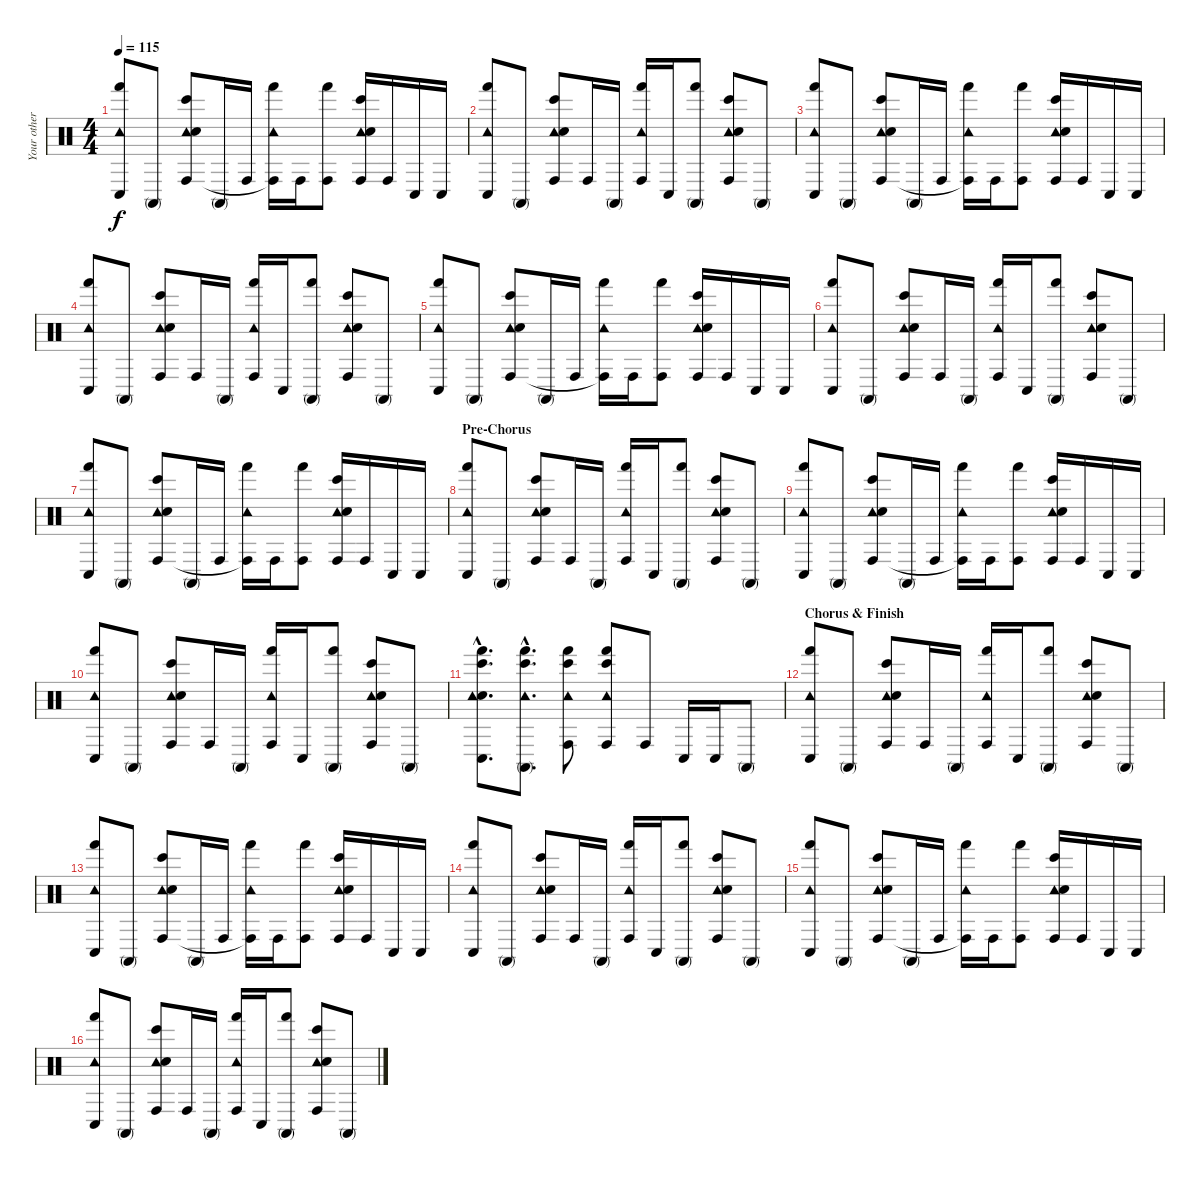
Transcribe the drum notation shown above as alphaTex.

\track ("Your other Friends giving you the Beat" "Your other") {instrument percussion}
\staff {score}
\articulation defaults
\ts (4 4)
\tempo 115
\clef neutral
\ks c
("Tambourine (hit)" "Conga low (hit)" "Hand (hit)").8{dy f} "Conga high (mute)".8 ("Tambourine (hit)" "Conga high (hit)" "Hand Clap (hit)" "Bongo High (hit)").8 "Conga high (mute)".16 "Conga high (hit)".16 ("Tambourine (hit)" "Conga high (hit)"{t} "Hand (hit)").16 "Conga high (hit)".16 ("Conga high (hit)" "Hand (hit)").8 ("Tambourine (hit)" "Conga high (hit)" "Hand Clap (hit)" "Bongo High (hit)").16 "Conga high (hit)".16 "Conga low (hit)".16 "Conga low (hit)".16 |
("Tambourine (hit)" "Conga low (hit)" "Hand (hit)").8 "Conga high (mute)".8 ("Tambourine (hit)" "Conga high (hit)" "Hand Clap (hit)" "Bongo High (hit)").8 "Conga high (hit)".16 "Conga high (mute)".16 ("Tambourine (hit)" "Conga high (hit)" "Hand (hit)").16 "Conga low (hit)".16 ("Conga high (mute)" "Hand (hit)").8 ("Tambourine (hit)" "Conga high (hit)" "Hand Clap (hit)" "Bongo High (hit)").8 "Conga high (mute)".8 |
("Tambourine (hit)" "Conga low (hit)" "Hand (hit)").8 "Conga high (mute)".8 ("Tambourine (hit)" "Conga high (hit)" "Hand Clap (hit)" "Bongo High (hit)").8 "Conga high (mute)".16 "Conga high (hit)".16 ("Tambourine (hit)" "Conga high (hit)"{t} "Hand (hit)").16 "Conga high (hit)".16 ("Conga high (hit)" "Hand (hit)").8 ("Tambourine (hit)" "Conga high (hit)" "Hand Clap (hit)" "Bongo High (hit)").16 "Conga high (hit)".16 "Conga low (hit)".16 "Conga low (hit)".16 |
("Tambourine (hit)" "Conga low (hit)" "Hand (hit)").8 "Conga high (mute)".8 ("Tambourine (hit)" "Conga high (hit)" "Hand Clap (hit)" "Bongo High (hit)").8 "Conga high (hit)".16 "Conga high (mute)".16 ("Tambourine (hit)" "Conga high (hit)" "Hand (hit)").16 "Conga low (hit)".16 ("Conga high (mute)" "Hand (hit)").8 ("Tambourine (hit)" "Conga high (hit)" "Hand Clap (hit)" "Bongo High (hit)").8 "Conga high (mute)".8 |
("Tambourine (hit)" "Conga low (hit)" "Hand (hit)").8 "Conga high (mute)".8 ("Tambourine (hit)" "Conga high (hit)" "Hand Clap (hit)" "Bongo High (hit)").8 "Conga high (mute)".16 "Conga high (hit)".16 ("Tambourine (hit)" "Conga high (hit)"{t} "Hand (hit)").16 "Conga high (hit)".16 ("Conga high (hit)" "Hand (hit)").8 ("Tambourine (hit)" "Conga high (hit)" "Hand Clap (hit)" "Bongo High (hit)").16 "Conga high (hit)".16 "Conga low (hit)".16 "Conga low (hit)".16 |
("Tambourine (hit)" "Conga low (hit)" "Hand (hit)").8 "Conga high (mute)".8 ("Tambourine (hit)" "Conga high (hit)" "Hand Clap (hit)" "Bongo High (hit)").8 "Conga high (hit)".16 "Conga high (mute)".16 ("Tambourine (hit)" "Conga high (hit)" "Hand (hit)").16 "Conga low (hit)".16 ("Conga high (mute)" "Hand (hit)").8 ("Tambourine (hit)" "Conga high (hit)" "Hand Clap (hit)" "Bongo High (hit)").8 "Conga high (mute)".8 |
("Tambourine (hit)" "Conga low (hit)" "Hand (hit)").8 "Conga high (mute)".8 ("Tambourine (hit)" "Conga high (hit)" "Hand Clap (hit)" "Bongo High (hit)").8 "Conga high (mute)".16 "Conga high (hit)".16 ("Tambourine (hit)" "Conga high (hit)"{t} "Hand (hit)").16 "Conga high (hit)".16 ("Conga high (hit)" "Hand (hit)").8 ("Tambourine (hit)" "Conga high (hit)" "Hand Clap (hit)" "Bongo High (hit)").16 "Conga high (hit)".16 "Conga low (hit)".16 "Conga low (hit)".16 |
\section ("" "Pre-Chorus")
("Tambourine (hit)" "Conga low (hit)" "Hand (hit)").8 "Conga high (mute)".8 ("Tambourine (hit)" "Conga high (hit)" "Hand Clap (hit)" "Bongo High (hit)").8 "Conga high (hit)".16 "Conga high (mute)".16 ("Tambourine (hit)" "Conga high (hit)" "Hand (hit)").16 "Conga low (hit)".16 ("Conga high (mute)" "Hand (hit)").8 ("Tambourine (hit)" "Conga high (hit)" "Hand Clap (hit)" "Bongo High (hit)").8 "Conga high (mute)".8 |
("Tambourine (hit)" "Conga low (hit)" "Hand (hit)").8 "Conga high (mute)".8 ("Tambourine (hit)" "Conga high (hit)" "Hand Clap (hit)" "Bongo High (hit)").8 "Conga high (mute)".16 "Conga high (hit)".16 ("Tambourine (hit)" "Conga high (hit)"{t} "Hand (hit)").16 "Conga high (hit)".16 ("Conga high (hit)" "Hand (hit)").8 ("Tambourine (hit)" "Conga high (hit)" "Hand Clap (hit)" "Bongo High (hit)").16 "Conga high (hit)".16 "Conga low (hit)".16 "Conga low (hit)".16 |
("Tambourine (hit)" "Conga low (hit)" "Hand (hit)").8 "Conga high (mute)".8 ("Tambourine (hit)" "Conga high (hit)" "Hand Clap (hit)" "Bongo High (hit)").8 "Conga high (hit)".16 "Conga high (mute)".16 ("Tambourine (hit)" "Conga high (hit)" "Hand (hit)").16 "Conga low (hit)".16 ("Conga high (mute)" "Hand (hit)").8 ("Tambourine (hit)" "Conga high (hit)" "Hand Clap (hit)" "Bongo High (hit)").8 "Conga high (mute)".8 |
("Hand Clap (hit)"{hac} "Tambourine (hit)"{hac} "Conga low (hit)"{hac} "Hand (hit)"{hac} "Bongo High (hit)"{hac}).8{d} ("Tambourine (hit)"{hac} "Conga high (mute)"{hac} "Hand (hit)"{hac} "Bongo High (hit)"{hac}).8{d} ("Tambourine (hit)" "Conga high (hit)" "Hand (hit)" "Bongo High (hit)").8 ("Tambourine (hit)" "Conga high (hit)" "Hand (hit)" "Bongo High (hit)").8 "Conga high (hit)".8 "Conga low (hit)".16 "Conga low (hit)".16 "Conga high (mute)".8 |
\section ("" "Chorus & Finish")
("Tambourine (hit)" "Conga low (hit)" "Hand (hit)").8 "Conga high (mute)".8 ("Tambourine (hit)" "Conga high (hit)" "Hand Clap (hit)" "Bongo High (hit)").8 "Conga high (hit)".16 "Conga high (mute)".16 ("Tambourine (hit)" "Conga high (hit)" "Hand (hit)").16 "Conga low (hit)".16 ("Conga high (mute)" "Hand (hit)").8 ("Tambourine (hit)" "Conga high (hit)" "Hand Clap (hit)" "Bongo High (hit)").8 "Conga high (mute)".8 |
("Tambourine (hit)" "Conga low (hit)" "Hand (hit)").8 "Conga high (mute)".8 ("Tambourine (hit)" "Conga high (hit)" "Hand Clap (hit)" "Bongo High (hit)").8 "Conga high (mute)".16 "Conga high (hit)".16 ("Tambourine (hit)" "Conga high (hit)"{t} "Hand (hit)").16 "Conga high (hit)".16 ("Conga high (hit)" "Hand (hit)").8 ("Tambourine (hit)" "Conga high (hit)" "Hand Clap (hit)" "Bongo High (hit)").16 "Conga high (hit)".16 "Conga low (hit)".16 "Conga low (hit)".16 |
("Tambourine (hit)" "Conga low (hit)" "Hand (hit)").8 "Conga high (mute)".8 ("Tambourine (hit)" "Conga high (hit)" "Hand Clap (hit)" "Bongo High (hit)").8 "Conga high (hit)".16 "Conga high (mute)".16 ("Tambourine (hit)" "Conga high (hit)" "Hand (hit)").16 "Conga low (hit)".16 ("Conga high (mute)" "Hand (hit)").8 ("Tambourine (hit)" "Conga high (hit)" "Hand Clap (hit)" "Bongo High (hit)").8 "Conga high (mute)".8 |
("Tambourine (hit)" "Conga low (hit)" "Hand (hit)").8 "Conga high (mute)".8 ("Tambourine (hit)" "Conga high (hit)" "Hand Clap (hit)" "Bongo High (hit)").8 "Conga high (mute)".16 "Conga high (hit)".16 ("Tambourine (hit)" "Conga high (hit)"{t} "Hand (hit)").16 "Conga high (hit)".16 ("Conga high (hit)" "Hand (hit)").8 ("Tambourine (hit)" "Conga high (hit)" "Hand Clap (hit)" "Bongo High (hit)").16 "Conga high (hit)".16 "Conga low (hit)".16 "Conga low (hit)".16 |
("Tambourine (hit)" "Conga low (hit)" "Hand (hit)").8 "Conga high (mute)".8 ("Tambourine (hit)" "Conga high (hit)" "Hand Clap (hit)" "Bongo High (hit)").8 "Conga high (hit)".16 "Conga high (mute)".16 ("Tambourine (hit)" "Conga high (hit)" "Hand (hit)").16 "Conga low (hit)".16 ("Conga high (mute)" "Hand (hit)").8 ("Tambourine (hit)" "Conga high (hit)" "Hand Clap (hit)" "Bongo High (hit)").8 "Conga high (mute)".8
